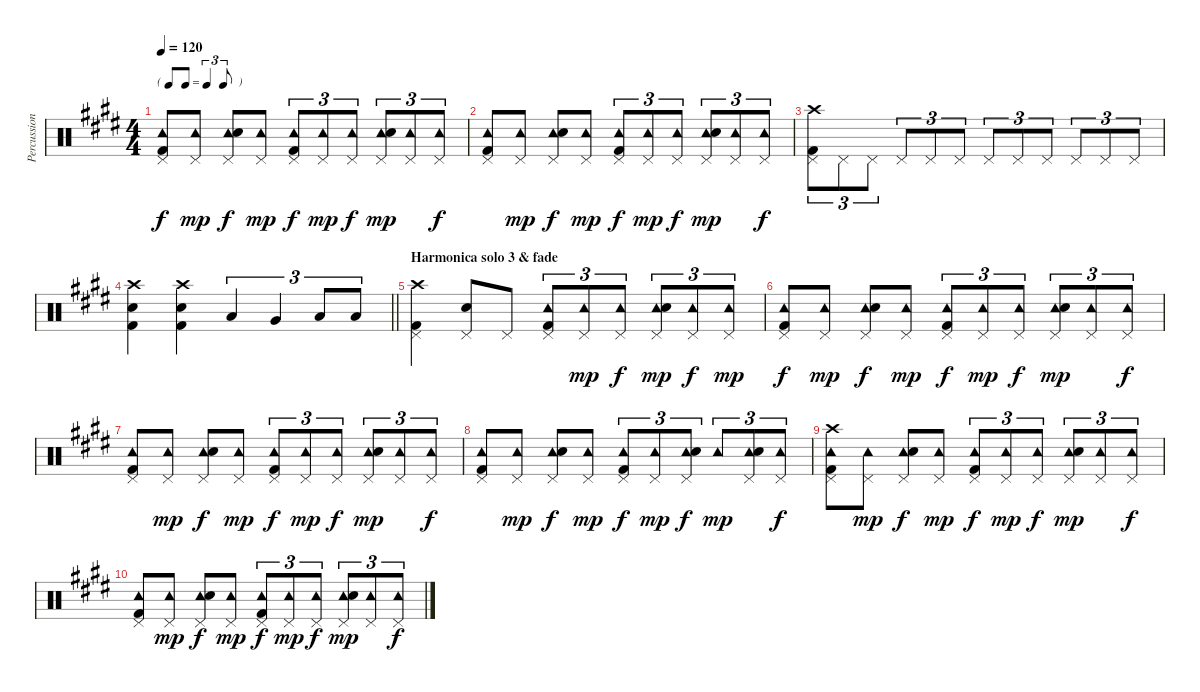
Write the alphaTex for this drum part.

\track ("Percussion" "Percussion") {instrument percussion}
\staff {score}
\articulation defaults
\ts (4 4)
\tf triplet8th
\tempo 120
\clef neutral
\ks e
("Tambourine (hit)" "Pedal Hi-Hat (hit)" "Kick (hit) 2").8{dy f} ("Tambourine (hit)" "Pedal Hi-Hat (hit)").8{dy mp} ("Tambourine (hit)" "Pedal Hi-Hat (hit)" "Electric Snare (hit)").8{dy f} ("Tambourine (hit)" "Pedal Hi-Hat (hit)").8{dy mp} ("Tambourine (hit)" "Pedal Hi-Hat (hit)" "Kick (hit) 2").8{tu (3 2) dy f} ("Tambourine (hit)" "Pedal Hi-Hat (hit)").8{tu (3 2) dy mp} ("Tambourine (hit)" "Pedal Hi-Hat (hit)").8{tu (3 2) dy f} ("Tambourine (hit)" "Pedal Hi-Hat (hit)" "Electric Snare (hit)").8{tu (3 2) dy mp} ("Tambourine (hit)" "Pedal Hi-Hat (hit)").8{tu (3 2)} ("Tambourine (hit)" "Pedal Hi-Hat (hit)").8{tu (3 2) dy f} |
("Tambourine (hit)" "Pedal Hi-Hat (hit)" "Kick (hit) 2").8 ("Tambourine (hit)" "Pedal Hi-Hat (hit)").8{dy mp} ("Tambourine (hit)" "Pedal Hi-Hat (hit)" "Electric Snare (hit)").8{dy f} ("Tambourine (hit)" "Pedal Hi-Hat (hit)").8{dy mp} ("Tambourine (hit)" "Pedal Hi-Hat (hit)" "Kick (hit) 2").8{tu (3 2) dy f} ("Tambourine (hit)" "Pedal Hi-Hat (hit)").8{tu (3 2) dy mp} ("Tambourine (hit)" "Pedal Hi-Hat (hit)").8{tu (3 2) dy f} ("Tambourine (hit)" "Pedal Hi-Hat (hit)" "Electric Snare (hit)").8{tu (3 2) dy mp} ("Tambourine (hit)" "Pedal Hi-Hat (hit)").8{tu (3 2)} ("Tambourine (hit)" "Pedal Hi-Hat (hit)").8{tu (3 2) dy f} |
("Crash high (hit)" "Pedal Hi-Hat (hit)" "Kick (hit) 2").8{tu (3 2) volume 14} "Pedal Hi-Hat (hit)".8{tu (3 2)} "Pedal Hi-Hat (hit)".8{tu (3 2)} "Pedal Hi-Hat (hit)".8{tu (3 2)} "Pedal Hi-Hat (hit)".8{tu (3 2)} "Pedal Hi-Hat (hit)".8{tu (3 2)} "Pedal Hi-Hat (hit)".8{tu (3 2)} "Pedal Hi-Hat (hit)".8{tu (3 2)} "Pedal Hi-Hat (hit)".8{tu (3 2)} "Pedal Hi-Hat (hit)".8{tu (3 2)} "Pedal Hi-Hat (hit)".8{tu (3 2)} "Pedal Hi-Hat (hit)".8{tu (3 2)} |
\barLineRight lightlight
("Crash high (hit)" "Electric Snare (hit)" "Kick (hit) 2").4 ("Crash high (hit)" "Electric Snare (hit)" "Kick (hit) 2").4 "Low Tom (hit)".4{tu (3 2)} "Very Low Tom (hit)".4{tu (3 2)} "Low Floor Tom (hit)".8{tu (3 2)} "Low Floor Tom (hit)".8{tu (3 2)} |
\section ("" "Harmonica solo 3 & fade")
("Crash high (hit)" "Pedal Hi-Hat (hit)" "Kick (hit) 2").4{volume 10} ("Pedal Hi-Hat (hit)" "Electric Snare (hit)").8 "Pedal Hi-Hat (hit)".8 ("Tambourine (hit)" "Pedal Hi-Hat (hit)" "Kick (hit) 2").8{tu (3 2)} ("Tambourine (hit)" "Pedal Hi-Hat (hit)").8{tu (3 2) dy mp} ("Tambourine (hit)" "Pedal Hi-Hat (hit)").8{tu (3 2) dy f} ("Tambourine (hit)" "Pedal Hi-Hat (hit)" "Electric Snare (hit)").8{tu (3 2) dy mp} ("Tambourine (hit)" "Pedal Hi-Hat (hit)").8{tu (3 2) dy f} ("Tambourine (hit)" "Pedal Hi-Hat (hit)").8{tu (3 2) dy mp} |
("Tambourine (hit)" "Pedal Hi-Hat (hit)" "Kick (hit) 2").8{dy f} ("Tambourine (hit)" "Pedal Hi-Hat (hit)").8{dy mp} ("Tambourine (hit)" "Pedal Hi-Hat (hit)" "Electric Snare (hit)").8{dy f} ("Tambourine (hit)" "Pedal Hi-Hat (hit)").8{dy mp} ("Tambourine (hit)" "Pedal Hi-Hat (hit)" "Kick (hit) 2").8{tu (3 2) dy f} ("Tambourine (hit)" "Pedal Hi-Hat (hit)").8{tu (3 2) dy mp} ("Tambourine (hit)" "Pedal Hi-Hat (hit)").8{tu (3 2) dy f} ("Tambourine (hit)" "Pedal Hi-Hat (hit)" "Electric Snare (hit)").8{tu (3 2) dy mp} ("Tambourine (hit)" "Pedal Hi-Hat (hit)").8{tu (3 2)} ("Tambourine (hit)" "Pedal Hi-Hat (hit)").8{tu (3 2) dy f} |
("Tambourine (hit)" "Pedal Hi-Hat (hit)" "Kick (hit) 2").8{volume 0} ("Tambourine (hit)" "Pedal Hi-Hat (hit)").8{dy mp} ("Tambourine (hit)" "Pedal Hi-Hat (hit)" "Electric Snare (hit)").8{dy f} ("Tambourine (hit)" "Pedal Hi-Hat (hit)").8{dy mp} ("Tambourine (hit)" "Pedal Hi-Hat (hit)" "Kick (hit) 2").8{tu (3 2) dy f} ("Tambourine (hit)" "Pedal Hi-Hat (hit)").8{tu (3 2) dy mp} ("Tambourine (hit)" "Pedal Hi-Hat (hit)").8{tu (3 2) dy f} ("Tambourine (hit)" "Pedal Hi-Hat (hit)" "Electric Snare (hit)").8{tu (3 2) dy mp} ("Tambourine (hit)" "Pedal Hi-Hat (hit)").8{tu (3 2)} ("Tambourine (hit)" "Pedal Hi-Hat (hit)").8{tu (3 2) dy f} |
("Tambourine (hit)" "Pedal Hi-Hat (hit)" "Kick (hit) 2").8 ("Tambourine (hit)" "Pedal Hi-Hat (hit)").8{dy mp} ("Tambourine (hit)" "Pedal Hi-Hat (hit)" "Electric Snare (hit)").8{dy f} ("Tambourine (hit)" "Pedal Hi-Hat (hit)").8{dy mp} ("Tambourine (hit)" "Pedal Hi-Hat (hit)" "Kick (hit) 2").8{tu (3 2) dy f} ("Tambourine (hit)" "Pedal Hi-Hat (hit)").8{tu (3 2) dy mp} ("Tambourine (hit)" "Pedal Hi-Hat (hit)" "Electric Snare (hit)").8{tu (3 2) dy f} "Tambourine (hit)".8{tu (3 2) dy mp} ("Tambourine (hit)" "Pedal Hi-Hat (hit)" "Electric Snare (hit)").8{tu (3 2)} ("Tambourine (hit)" "Pedal Hi-Hat (hit)").8{tu (3 2) dy f} |
("Tambourine (hit)" "Crash high (hit)" "Pedal Hi-Hat (hit)" "Kick (hit) 2").8 ("Tambourine (hit)" "Pedal Hi-Hat (hit)").8{dy mp} ("Tambourine (hit)" "Pedal Hi-Hat (hit)" "Electric Snare (hit)").8{dy f} ("Tambourine (hit)" "Pedal Hi-Hat (hit)").8{dy mp} ("Tambourine (hit)" "Pedal Hi-Hat (hit)" "Kick (hit) 2").8{tu (3 2) dy f} ("Tambourine (hit)" "Pedal Hi-Hat (hit)").8{tu (3 2) dy mp} ("Tambourine (hit)" "Pedal Hi-Hat (hit)").8{tu (3 2) dy f} ("Tambourine (hit)" "Pedal Hi-Hat (hit)" "Electric Snare (hit)").8{tu (3 2) dy mp} ("Tambourine (hit)" "Pedal Hi-Hat (hit)").8{tu (3 2)} ("Tambourine (hit)" "Pedal Hi-Hat (hit)").8{tu (3 2) dy f} |
("Tambourine (hit)" "Pedal Hi-Hat (hit)" "Kick (hit) 2").8 ("Tambourine (hit)" "Pedal Hi-Hat (hit)").8{dy mp} ("Tambourine (hit)" "Pedal Hi-Hat (hit)" "Electric Snare (hit)").8{dy f} ("Tambourine (hit)" "Pedal Hi-Hat (hit)").8{dy mp} ("Tambourine (hit)" "Pedal Hi-Hat (hit)" "Kick (hit) 2").8{tu (3 2) dy f} ("Tambourine (hit)" "Pedal Hi-Hat (hit)").8{tu (3 2) dy mp} ("Tambourine (hit)" "Pedal Hi-Hat (hit)").8{tu (3 2) dy f} ("Tambourine (hit)" "Pedal Hi-Hat (hit)" "Electric Snare (hit)").8{tu (3 2) dy mp} ("Tambourine (hit)" "Pedal Hi-Hat (hit)").8{tu (3 2)} ("Tambourine (hit)" "Pedal Hi-Hat (hit)").8{tu (3 2) dy f}
